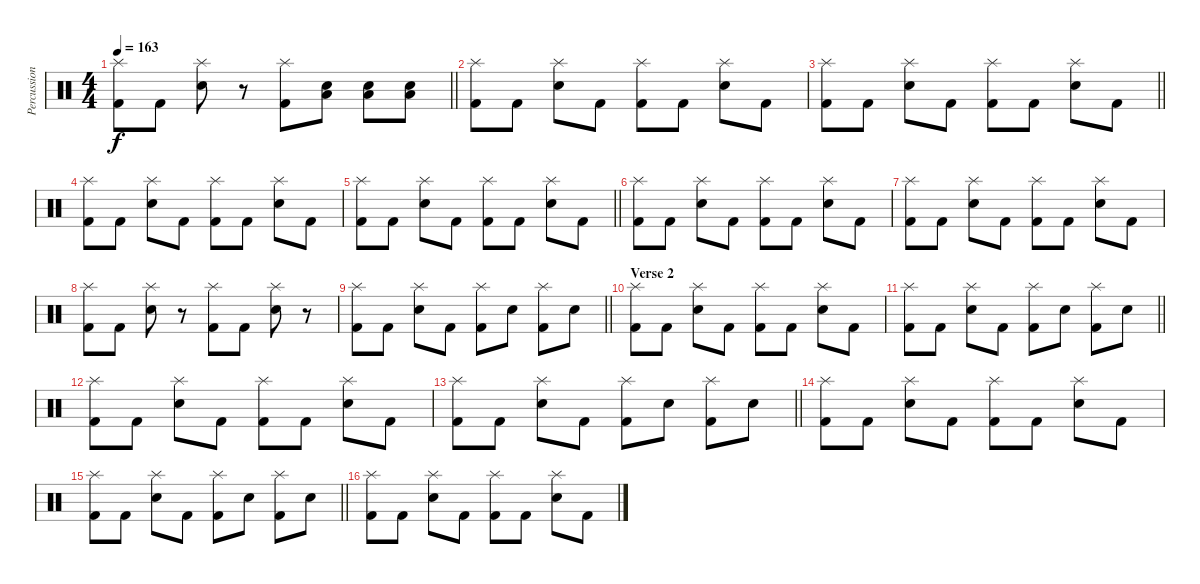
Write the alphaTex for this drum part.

\track ("Percussion" "Percussion") {solo instrument percussion}
\staff {score}
\articulation defaults
\ts (4 4)
\tempo 163
\clef neutral
\barLineRight lightlight
\ks c
("Splash (hit)" "Kick (hit) 2").8{dy f} "Kick (hit) 2".8 ("Splash (hit)" "Snare (hit) 2").8 r.8 ("Splash (hit)" "Kick (hit) 2").8 ("Snare (hit) 2" "Low Floor Tom (hit)").8 ("Snare (hit) 2" "Low Floor Tom (hit)").8 ("Snare (hit) 2" "Low Floor Tom (hit)").8 |
("Splash (hit)" "Kick (hit) 2").8 "Kick (hit) 2".8 ("Splash (hit)" "Snare (hit) 2").8 "Kick (hit) 2".8 ("Splash (hit)" "Kick (hit) 2").8 "Kick (hit) 2".8 ("Splash (hit)" "Snare (hit) 2").8 "Kick (hit) 2".8 |
\barLineRight lightlight
("Splash (hit)" "Kick (hit) 2").8 "Kick (hit) 2".8 ("Splash (hit)" "Snare (hit) 2").8 "Kick (hit) 2".8 ("Splash (hit)" "Kick (hit) 2").8 "Kick (hit) 2".8 ("Splash (hit)" "Snare (hit) 2").8 "Kick (hit) 2".8 |
("Splash (hit)" "Kick (hit) 2").8 "Kick (hit) 2".8 ("Splash (hit)" "Snare (hit) 2").8 "Kick (hit) 2".8 ("Splash (hit)" "Kick (hit) 2").8 "Kick (hit) 2".8 ("Splash (hit)" "Snare (hit) 2").8 "Kick (hit) 2".8 |
\barLineRight lightlight
("Splash (hit)" "Kick (hit) 2").8 "Kick (hit) 2".8 ("Splash (hit)" "Snare (hit) 2").8 "Kick (hit) 2".8 ("Splash (hit)" "Kick (hit) 2").8 "Kick (hit) 2".8 ("Splash (hit)" "Snare (hit) 2").8 "Kick (hit) 2".8 |
("Splash (hit)" "Kick (hit) 2").8 "Kick (hit) 2".8 ("Splash (hit)" "Snare (hit) 2").8 "Kick (hit) 2".8 ("Splash (hit)" "Kick (hit) 2").8 "Kick (hit) 2".8 ("Splash (hit)" "Snare (hit) 2").8 "Kick (hit) 2".8 |
("Splash (hit)" "Kick (hit) 2").8 "Kick (hit) 2".8 ("Splash (hit)" "Snare (hit) 2").8 "Kick (hit) 2".8 ("Splash (hit)" "Kick (hit) 2").8 "Kick (hit) 2".8 ("Splash (hit)" "Snare (hit) 2").8 "Kick (hit) 2".8 |
("Splash (hit)" "Kick (hit) 2").8 "Kick (hit) 2".8 ("Splash (hit)" "Snare (hit) 2").8 r.8 ("Splash (hit)" "Kick (hit) 2").8 "Kick (hit) 2".8 ("Splash (hit)" "Snare (hit) 2").8 r.8 |
\barLineRight lightlight
("Splash (hit)" "Kick (hit) 2").8 "Kick (hit) 2".8 ("Splash (hit)" "Snare (hit) 2").8 "Kick (hit) 2".8 ("Splash (hit)" "Kick (hit) 2").8 "Snare (hit) 2".8 ("Splash (hit)" "Kick (hit) 2").8 "Snare (hit) 2".8 |
\section ("" "Verse 2")
("Splash (hit)" "Kick (hit) 2").8 "Kick (hit) 2".8 ("Splash (hit)" "Snare (hit) 2").8 "Kick (hit) 2".8 ("Splash (hit)" "Kick (hit) 2").8 "Kick (hit) 2".8 ("Splash (hit)" "Snare (hit) 2").8 "Kick (hit) 2".8 |
\barLineRight lightlight
("Splash (hit)" "Kick (hit) 2").8 "Kick (hit) 2".8 ("Splash (hit)" "Snare (hit) 2").8 "Kick (hit) 2".8 ("Splash (hit)" "Kick (hit) 2").8 "Snare (hit) 2".8 ("Splash (hit)" "Kick (hit) 2").8 "Snare (hit) 2".8 |
("Splash (hit)" "Kick (hit) 2").8 "Kick (hit) 2".8 ("Splash (hit)" "Snare (hit) 2").8 "Kick (hit) 2".8 ("Splash (hit)" "Kick (hit) 2").8 "Kick (hit) 2".8 ("Splash (hit)" "Snare (hit) 2").8 "Kick (hit) 2".8 |
\barLineRight lightlight
("Splash (hit)" "Kick (hit) 2").8 "Kick (hit) 2".8 ("Splash (hit)" "Snare (hit) 2").8 "Kick (hit) 2".8 ("Splash (hit)" "Kick (hit) 2").8 "Snare (hit) 2".8 ("Splash (hit)" "Kick (hit) 2").8 "Snare (hit) 2".8 |
("Splash (hit)" "Kick (hit) 2").8 "Kick (hit) 2".8 ("Splash (hit)" "Snare (hit) 2").8 "Kick (hit) 2".8 ("Splash (hit)" "Kick (hit) 2").8 "Kick (hit) 2".8 ("Splash (hit)" "Snare (hit) 2").8 "Kick (hit) 2".8 |
\barLineRight lightlight
("Splash (hit)" "Kick (hit) 2").8 "Kick (hit) 2".8 ("Splash (hit)" "Snare (hit) 2").8 "Kick (hit) 2".8 ("Splash (hit)" "Kick (hit) 2").8 "Snare (hit) 2".8 ("Splash (hit)" "Kick (hit) 2").8 "Snare (hit) 2".8 |
("Splash (hit)" "Kick (hit) 2").8 "Kick (hit) 2".8 ("Splash (hit)" "Snare (hit) 2").8 "Kick (hit) 2".8 ("Splash (hit)" "Kick (hit) 2").8 "Kick (hit) 2".8 ("Splash (hit)" "Snare (hit) 2").8 "Kick (hit) 2".8
